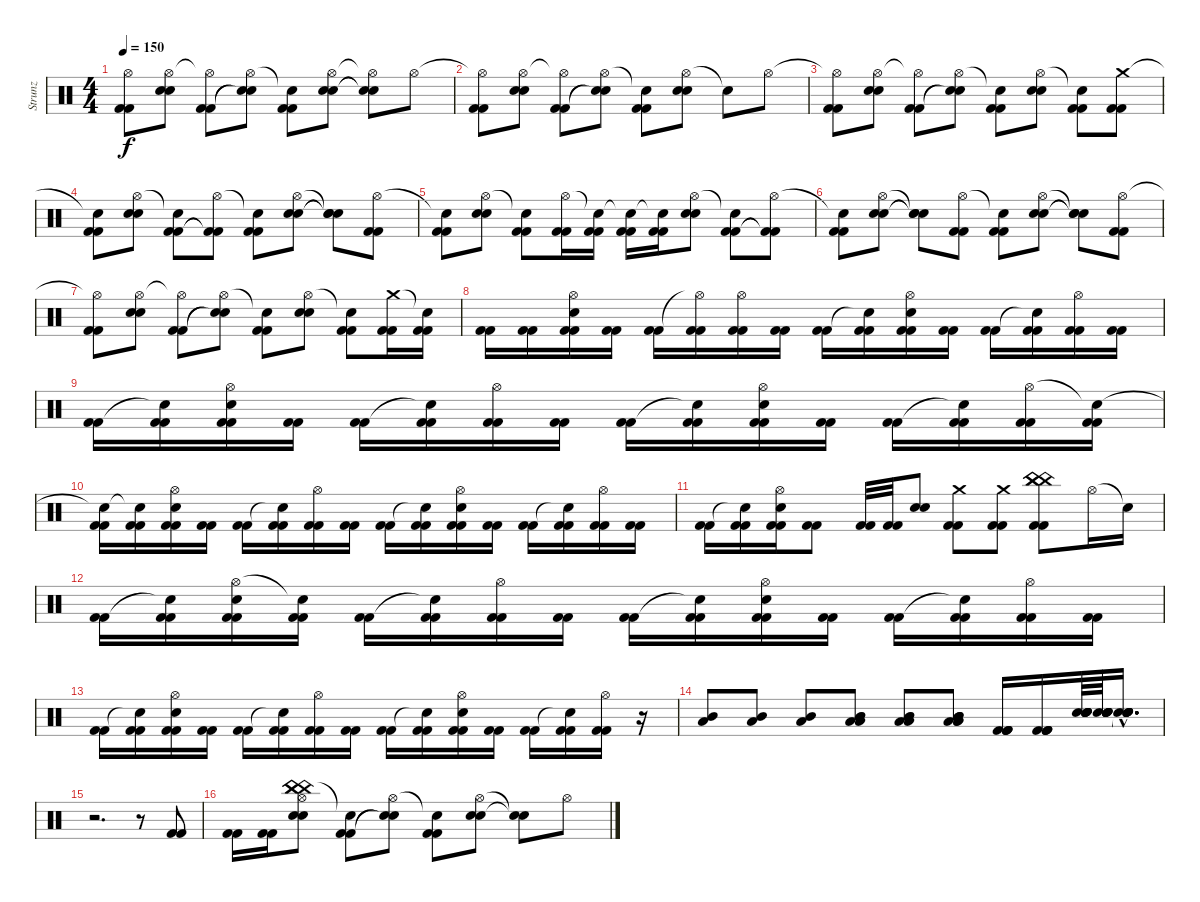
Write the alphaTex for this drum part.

\track ("Strunz" "Strunz") {instrument percussion}
\staff {score}
\articulation defaults
\ts (4 4)
\tempo 150
\clef neutral
\ks c
("Hi-Hat (open)"{t} "Kick (hit) 2" "Kick (hit) 2").8{dy f} ("Hi-Hat (open)" "Snare (hit) 2" "Snare (hit) 2").8 ("Hi-Hat (open)"{t} "Kick (hit) 2" "Kick (hit) 2").8 ("Hi-Hat (open)" "Snare (hit)"{t} "Snare (hit)"{t}).8 ("Snare (hit)"{t} "Kick (hit) 2" "Kick (hit) 2").8 ("Hi-Hat (open)" "Snare (hit) 2" "Snare (hit) 2").8 ("Hi-Hat (open)"{t} "Snare (hit)"{t} "Snare (hit)"{t}).8 "Hi-Hat (open)".8 |
("Hi-Hat (open)"{t} "Kick (hit) 2" "Kick (hit) 2").8 ("Hi-Hat (open)" "Snare (hit) 2" "Snare (hit) 2").8 ("Hi-Hat (open)"{t} "Kick (hit) 2" "Kick (hit) 2").8 ("Hi-Hat (open)" "Snare (hit)"{t} "Snare (hit)"{t}).8 ("Snare (hit)"{t} "Kick (hit) 2" "Kick (hit) 2").8 ("Hi-Hat (open)" "Snare (hit) 2" "Snare (hit) 2").8 "Snare (hit)"{t}.8 "Hi-Hat (open)".8 |
("Hi-Hat (open)"{t} "Kick (hit) 2" "Kick (hit) 2").8 ("Hi-Hat (open)" "Snare (hit) 2" "Snare (hit) 2").8 ("Hi-Hat (open)"{t} "Kick (hit) 2" "Kick (hit) 2").8 ("Hi-Hat (open)" "Snare (hit)"{t} "Snare (hit)"{t}).8 ("Snare (hit)"{t} "Kick (hit) 2" "Kick (hit) 2").8 ("Hi-Hat (open)" "Snare (hit) 2" "Snare (hit) 2").8 ("Snare (hit)"{t} "Kick (hit) 2" "Kick (hit) 2").8 ("Crash medium (hit)" "Kick (hit) 2" "Kick (hit) 2").8 |
("Snare (hit)"{t} "Kick (hit) 2" "Kick (hit) 2").8 ("Hi-Hat (open)" "Snare (hit) 2" "Snare (hit) 2").8 ("Snare (hit)"{t} "Kick (hit) 2" "Kick (hit) 2").8 ("Hi-Hat (open)" "Kick (hit) 2"{t} "Kick (hit) 2"{t}).8 ("Snare (hit)"{t} "Kick (hit) 2" "Kick (hit) 2").8 ("Hi-Hat (open)" "Snare (hit) 2" "Snare (hit) 2").8 ("Snare (hit)"{t} "Snare (hit) 2"{t} "Snare (hit) 2"{t}).8 ("Hi-Hat (open)" "Kick (hit) 2" "Kick (hit) 2").8 |
("Snare (hit)"{t} "Kick (hit) 2" "Kick (hit) 2").8 ("Hi-Hat (open)" "Snare (hit) 2" "Snare (hit) 2").8 ("Snare (hit)"{t} "Kick (hit) 2" "Kick (hit) 2").8 ("Hi-Hat (open)" "Kick (hit) 2" "Kick (hit) 2").16 ("Snare (hit)"{t} "Kick (hit) 2" "Kick (hit) 2").16 ("Snare (hit)"{t} "Kick (hit) 2" "Kick (hit) 2").16 ("Snare (hit)"{t} "Kick (hit) 2" "Kick (hit) 2").16 ("Hi-Hat (open)" "Snare (hit) 2" "Snare (hit) 2").8 ("Snare (hit)"{t} "Kick (hit) 2" "Kick (hit) 2").8 ("Hi-Hat (open)" "Kick (hit) 2"{t} "Kick (hit) 2"{t}).8 |
("Snare (hit)"{t} "Kick (hit) 2" "Kick (hit) 2").8 ("Hi-Hat (open)" "Snare (hit) 2" "Snare (hit) 2").8 ("Snare (hit)"{t} "Snare (hit) 2"{t} "Snare (hit) 2"{t}).8 ("Hi-Hat (open)" "Kick (hit) 2" "Kick (hit) 2").8 ("Snare (hit)"{t} "Kick (hit) 2" "Kick (hit) 2").8 ("Hi-Hat (open)" "Snare (hit) 2" "Snare (hit) 2").8 ("Snare (hit)"{t} "Snare (hit)"{t} "Snare (hit)"{t}).8 ("Hi-Hat (open)" "Kick (hit) 2" "Kick (hit) 2").8 |
("Hi-Hat (open)"{t} "Kick (hit) 2" "Kick (hit) 2").8 ("Hi-Hat (open)" "Snare (hit) 2" "Snare (hit) 2").8 ("Hi-Hat (open)"{t} "Kick (hit) 2" "Kick (hit) 2").8 ("Hi-Hat (open)" "Snare (hit)"{t} "Snare (hit)"{t}).8 ("Snare (hit)"{t} "Kick (hit) 2" "Kick (hit) 2").8 ("Hi-Hat (open)" "Snare (hit) 2" "Snare (hit) 2").8 ("Snare (hit)"{t} "Kick (hit) 2" "Kick (hit) 2").8 ("Crash medium (hit)" "Kick (hit) 2" "Kick (hit) 2").16 ("Snare (hit)"{t} "Kick (hit) 2" "Kick (hit) 2").16 |
("Kick (hit) 2" "Kick (hit) 2").16 ("Kick (hit) 2" "Kick (hit) 2").16 ("Hi-Hat (open)" "Snare (hit) 2" "Kick (hit) 2" "Kick (hit) 2").16 ("Kick (hit) 2" "Kick (hit) 2").16 ("Kick (hit) 2" "Kick (hit) 2").16 ("Hi-Hat (open)"{t} "Kick (hit) 2" "Kick (hit) 2").16 ("Hi-Hat (open)" "Kick (hit) 2" "Kick (hit) 2").16 ("Kick (hit) 2" "Kick (hit) 2").16 ("Kick (hit) 2" "Kick (hit) 2").16 ("Snare (hit)"{t} "Kick (hit) 2" "Kick (hit) 2").16 ("Hi-Hat (open)" "Snare (hit) 2" "Kick (hit) 2" "Kick (hit) 2").16 ("Kick (hit) 2" "Kick (hit) 2").16 ("Kick (hit) 2" "Kick (hit) 2").16 ("Snare (hit)"{t} "Kick (hit) 2" "Kick (hit) 2").16 ("Hi-Hat (open)" "Kick (hit) 2" "Kick (hit) 2").16 ("Kick (hit) 2" "Kick (hit) 2").16 |
("Kick (hit) 2" "Kick (hit) 2").16 ("Snare (hit)"{t} "Kick (hit) 2" "Kick (hit) 2").16 ("Hi-Hat (open)" "Snare (hit) 2" "Kick (hit) 2" "Kick (hit) 2").16 ("Kick (hit) 2" "Kick (hit) 2").16 ("Kick (hit) 2" "Kick (hit) 2").16 ("Snare (hit)"{t} "Kick (hit) 2" "Kick (hit) 2").16 ("Hi-Hat (open)" "Kick (hit) 2" "Kick (hit) 2").16 ("Kick (hit) 2" "Kick (hit) 2").16 ("Kick (hit) 2" "Kick (hit) 2").16 ("Snare (hit)"{t} "Kick (hit) 2" "Kick (hit) 2").16 ("Hi-Hat (open)" "Snare (hit) 2" "Kick (hit) 2" "Kick (hit) 2").16 ("Kick (hit) 2" "Kick (hit) 2").16 ("Kick (hit) 2" "Kick (hit) 2").16 ("Snare (hit)"{t} "Kick (hit) 2" "Kick (hit) 2").16 ("Hi-Hat (open)" "Kick (hit) 2" "Kick (hit) 2").16 ("Snare (hit)"{t} "Kick (hit) 2" "Kick (hit) 2").16 |
("Snare (hit)"{t} "Kick (hit) 2" "Kick (hit) 2").16 ("Snare (hit)"{t} "Kick (hit) 2" "Kick (hit) 2").16 ("Hi-Hat (open)" "Snare (hit) 2" "Kick (hit) 2" "Kick (hit) 2").16 ("Kick (hit) 2" "Kick (hit) 2").16 ("Kick (hit) 2" "Kick (hit) 2").16 ("Snare (hit)"{t} "Kick (hit) 2" "Kick (hit) 2").16 ("Hi-Hat (open)" "Kick (hit) 2" "Kick (hit) 2").16 ("Kick (hit) 2" "Kick (hit) 2").16 ("Kick (hit) 2" "Kick (hit) 2").16 ("Snare (hit)"{t} "Kick (hit) 2" "Kick (hit) 2").16 ("Hi-Hat (open)" "Snare (hit) 2" "Kick (hit) 2" "Kick (hit) 2").16 ("Kick (hit) 2" "Kick (hit) 2").16 ("Kick (hit) 2" "Kick (hit) 2").16 ("Snare (hit)"{t} "Kick (hit) 2" "Kick (hit) 2").16 ("Hi-Hat (open)" "Kick (hit) 2" "Kick (hit) 2").16 ("Kick (hit) 2" "Kick (hit) 2").16 |
("Kick (hit) 2" "Kick (hit) 2").16 ("Snare (hit)"{t} "Kick (hit) 2" "Kick (hit) 2").16 ("Hi-Hat (open)" "Snare (hit) 2" "Kick (hit) 2" "Kick (hit) 2").16 ("Kick (hit) 2" "Kick (hit) 2").8 ("Kick (hit) 2" "Kick (hit) 2").32 ("Kick (hit) 2" "Kick (hit) 2").32 ("Snare (hit) 2" "Snare (hit) 2").8 ("Crash medium (hit)" "Kick (hit) 2" "Kick (hit) 2").8 ("Crash medium (hit)" "Kick (hit) 2" "Kick (hit) 2").8 ("China (hit)" "China (hit)" "China (hit)" "Kick (hit) 2" "Kick (hit) 2").8 "Hi-Hat (open)".16 "Snare (hit)"{t}.16 |
("Kick (hit) 2" "Kick (hit) 2").16 ("Snare (hit)"{t} "Kick (hit) 2" "Kick (hit) 2").16 ("Hi-Hat (open)" "Snare (hit) 2" "Kick (hit) 2" "Kick (hit) 2").16 ("Snare (hit)"{t} "Kick (hit) 2" "Kick (hit) 2").16 ("Kick (hit) 2" "Kick (hit) 2").16 ("Snare (hit)"{t} "Kick (hit) 2" "Kick (hit) 2").16 ("Hi-Hat (open)" "Kick (hit) 2" "Kick (hit) 2").16 ("Kick (hit) 2" "Kick (hit) 2").16 ("Kick (hit) 2" "Kick (hit) 2").16 ("Snare (hit)"{t} "Kick (hit) 2" "Kick (hit) 2").16 ("Hi-Hat (open)" "Snare (hit) 2" "Kick (hit) 2" "Kick (hit) 2").16 ("Kick (hit) 2" "Kick (hit) 2").16 ("Kick (hit) 2" "Kick (hit) 2").16 ("Snare (hit)"{t} "Kick (hit) 2" "Kick (hit) 2").16 ("Hi-Hat (open)" "Kick (hit) 2" "Kick (hit) 2").16 ("Kick (hit) 2" "Kick (hit) 2").16 |
("Kick (hit) 2" "Kick (hit) 2").16 ("Snare (hit)"{t} "Kick (hit) 2" "Kick (hit) 2").16 ("Hi-Hat (open)" "Snare (hit) 2" "Kick (hit) 2" "Kick (hit) 2").16 ("Kick (hit) 2" "Kick (hit) 2").16 ("Kick (hit) 2" "Kick (hit) 2").16 ("Snare (hit)"{t} "Kick (hit) 2" "Kick (hit) 2").16 ("Hi-Hat (open)" "Kick (hit) 2" "Kick (hit) 2").16 ("Kick (hit) 2" "Kick (hit) 2").16 ("Kick (hit) 2" "Kick (hit) 2").16 ("Snare (hit)"{t} "Kick (hit) 2" "Kick (hit) 2").16 ("Hi-Hat (open)" "Snare (hit) 2" "Kick (hit) 2" "Kick (hit) 2").16 ("Kick (hit) 2" "Kick (hit) 2").16 ("Kick (hit) 2" "Kick (hit) 2").16 ("Snare (hit)"{t} "Kick (hit) 2" "Kick (hit) 2").16 ("Hi-Hat (open)" "Kick (hit) 2" "Kick (hit) 2").16 r.16 |
("Mid Tom (hit)" "Low Tom (hit)").8 ("Mid Tom (hit)" "Low Tom (hit)").8 ("Mid Tom (hit)" "Low Tom (hit)").8 ("Low Tom (hit)" "Low Tom (hit)" "Mid Tom (hit)" "Mid Tom (hit)").8 ("Low Tom (hit)" "Low Tom (hit)" "Mid Tom (hit)" "Mid Tom (hit)").8 ("Low Tom (hit)" "Low Tom (hit)" "Low Tom (hit)" "Mid Tom (hit)" "Mid Tom (hit)" "Mid Tom (hit)").8 ("Kick (hit) 2" "Kick (hit) 2" "Kick (hit) 2" "Kick (hit) 2").16 ("Kick (hit) 2" "Kick (hit) 2" "Kick (hit) 2" "Kick (hit) 2").16 ("Snare (hit) 2" "Snare (hit) 2" "Snare (hit) 2" "Snare (hit) 2" "Snare (hit) 2" "Snare (hit) 2").64 ("Snare (hit) 2" "Snare (hit) 2" "Snare (hit) 2" "Snare (hit) 2" "Snare (hit) 2" "Snare (hit) 2").64 ("Snare (hit)"{hac t} "Snare (hit)"{hac t} "Snare (hit)"{hac t} "Snare (hit)"{hac t} "Snare (hit)"{hac t} "Snare (hit)"{hac t}).16{d} |
r.2{d} r.8 ("Kick (hit) 2" "Kick (hit) 2").8 |
("Kick (hit) 2" "Kick (hit) 2").16 ("Kick (hit) 2" "Kick (hit) 2").16 ("China (hit)" "Hi-Hat (open)" "China (hit)" "Snare (hit) 2" "Snare (hit) 2" "China (hit)").8 ("Snare (hit)"{t} "Kick (hit) 2" "Kick (hit) 2").8 ("Hi-Hat (open)" "Snare (hit)"{t} "Snare (hit)"{t}).8 ("Snare (hit)"{t} "Kick (hit) 2" "Kick (hit) 2").8 ("Hi-Hat (open)" "Snare (hit) 2" "Snare (hit) 2").8 ("Snare (hit)"{t} "Snare (hit)"{t}).8 "Hi-Hat (open)".8
